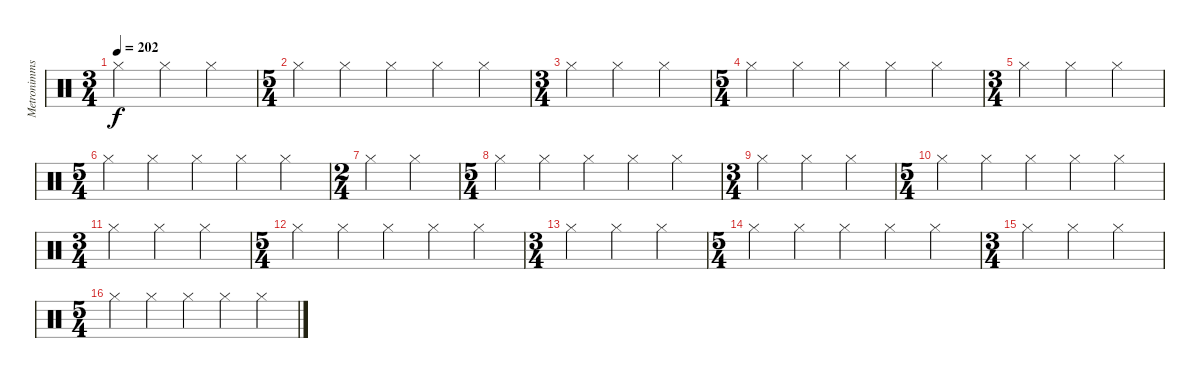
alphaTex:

\track ("Metronimms" "Metronimms") {instrument percussion}
\staff {score}
\articulation defaults
\ts (3 4)
\tempo 202
\clef neutral
\ks c "Hi-Hat (closed)".4{dy f} "Hi-Hat (closed)".4 "Hi-Hat (closed)".4
|
\ts (5 4)
"Hi-Hat (closed)".4 "Hi-Hat (closed)".4 "Hi-Hat (closed)".4 "Hi-Hat (closed)".4 "Hi-Hat (closed)".4 |
\ts (3 4)
"Hi-Hat (closed)".4 "Hi-Hat (closed)".4 "Hi-Hat (closed)".4 |
\ts (5 4)
"Hi-Hat (closed)".4 "Hi-Hat (closed)".4 "Hi-Hat (closed)".4 "Hi-Hat (closed)".4 "Hi-Hat (closed)".4 |
\ts (3 4)
"Hi-Hat (closed)".4 "Hi-Hat (closed)".4 "Hi-Hat (closed)".4 |
\ts (5 4)
"Hi-Hat (closed)".4 "Hi-Hat (closed)".4 "Hi-Hat (closed)".4 "Hi-Hat (closed)".4 "Hi-Hat (closed)".4 |
\ts (2 4)
"Hi-Hat (closed)".4 "Hi-Hat (closed)".4 |
\ts (5 4)
"Hi-Hat (closed)".4 "Hi-Hat (closed)".4 "Hi-Hat (closed)".4 "Hi-Hat (closed)".4 "Hi-Hat (closed)".4 |
\ts (3 4)
"Hi-Hat (closed)".4 "Hi-Hat (closed)".4 "Hi-Hat (closed)".4 |
\ts (5 4)
"Hi-Hat (closed)".4 "Hi-Hat (closed)".4 "Hi-Hat (closed)".4 "Hi-Hat (closed)".4 "Hi-Hat (closed)".4 |
\ts (3 4)
"Hi-Hat (closed)".4 "Hi-Hat (closed)".4 "Hi-Hat (closed)".4 |
\ts (5 4)
"Hi-Hat (closed)".4 "Hi-Hat (closed)".4 "Hi-Hat (closed)".4 "Hi-Hat (closed)".4 "Hi-Hat (closed)".4 |
\ts (3 4)
"Hi-Hat (closed)".4 "Hi-Hat (closed)".4 "Hi-Hat (closed)".4 |
\ts (5 4)
"Hi-Hat (closed)".4 "Hi-Hat (closed)".4 "Hi-Hat (closed)".4 "Hi-Hat (closed)".4 "Hi-Hat (closed)".4 |
\ts (3 4)
"Hi-Hat (closed)".4 "Hi-Hat (closed)".4 "Hi-Hat (closed)".4 |
\ts (5 4)
"Hi-Hat (closed)".4 "Hi-Hat (closed)".4 "Hi-Hat (closed)".4 "Hi-Hat (closed)".4 "Hi-Hat (closed)".4
